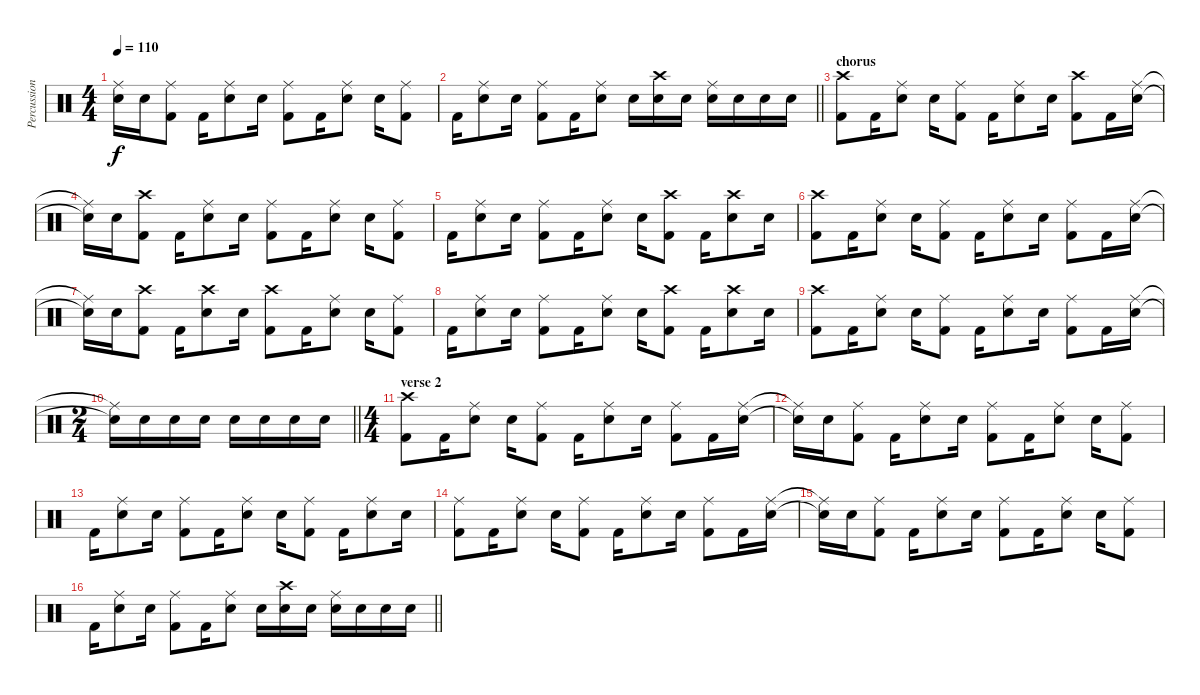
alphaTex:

\track ("Percussion" "Percussion") {instrument percussion}
\staff {score}
\articulation defaults
\ts (4 4)
\tempo 110
\clef neutral
\ks c
("Electric Snare (hit)"{t} "Ride (middle)"{t}).16{dy f} "Electric Snare (hit)".16 ("Kick (hit) 2" "Ride (middle)").8 "Kick (hit) 2".16 ("Electric Snare (hit)" "Ride (middle)").8 "Electric Snare (hit)".16 ("Kick (hit) 2" "Ride (middle)").8 "Kick (hit) 2".16 ("Electric Snare (hit)" "Ride (middle)").8 "Electric Snare (hit)".16 ("Kick (hit) 2" "Ride (middle)").8 |
\barLineRight lightlight "Kick (hit) 2".16
("Electric Snare (hit)" "Ride (middle)").8 "Electric Snare (hit)".16 ("Kick (hit) 2" "Ride (middle)").8 "Kick (hit) 2".16 ("Electric Snare (hit)" "Ride (middle)").8 "Electric Snare (hit)".16 ("Electric Snare (hit)" "Crash high (hit)").16 "Electric Snare (hit)".16 ("Electric Snare (hit)" "Ride (middle)").16 "Electric Snare (hit)".16 "Electric Snare (hit)".16 "Electric Snare (hit)".16 |
\section ("" "chorus")
("Kick (hit) 2" "Crash high (hit)").8 "Kick (hit) 2".16 ("Electric Snare (hit)" "Ride (middle)").8 "Electric Snare (hit)".16 ("Kick (hit) 2" "Ride (middle)").8 "Kick (hit) 2".16 ("Electric Snare (hit)" "Ride (middle)").8 "Electric Snare (hit)".16 ("Kick (hit) 2" "Crash high (hit)").8 "Kick (hit) 2".16 ("Electric Snare (hit)" "Ride (middle)").16 |
("Electric Snare (hit)"{t} "Ride (middle)"{t}).16 "Electric Snare (hit)".16 ("Kick (hit) 2" "Crash high (hit)").8 "Kick (hit) 2".16 ("Electric Snare (hit)" "Ride (middle)").8 "Electric Snare (hit)".16 ("Kick (hit) 2" "Ride (middle)").8 "Kick (hit) 2".16 ("Electric Snare (hit)" "Ride (middle)").8 "Electric Snare (hit)".16 ("Kick (hit) 2" "Ride (middle)").8 |
"Kick (hit) 2".16 ("Electric Snare (hit)" "Ride (middle)").8 "Electric Snare (hit)".16 ("Kick (hit) 2" "Ride (middle)").8 "Kick (hit) 2".16 ("Electric Snare (hit)" "Ride (middle)").8 "Electric Snare (hit)".16 ("Kick (hit) 2" "Crash high (hit)").8 "Kick (hit) 2".16 ("Electric Snare (hit)" "Crash high (hit)").8 "Electric Snare (hit)".16 |
("Kick (hit) 2" "Crash high (hit)").8 "Kick (hit) 2".16 ("Electric Snare (hit)" "Ride (middle)").8 "Electric Snare (hit)".16 ("Kick (hit) 2" "Ride (middle)").8 "Kick (hit) 2".16 ("Electric Snare (hit)" "Ride (middle)").8 "Electric Snare (hit)".16 ("Kick (hit) 2" "Ride (middle)").8 "Kick (hit) 2".16 ("Electric Snare (hit)" "Ride (middle)").16 |
("Electric Snare (hit)"{t} "Ride (middle)"{t}).16 "Electric Snare (hit)".16 ("Kick (hit) 2" "Crash high (hit)").8 "Kick (hit) 2".16 ("Electric Snare (hit)" "Crash high (hit)").8 "Electric Snare (hit)".16 ("Kick (hit) 2" "Crash high (hit)").8 "Kick (hit) 2".16 ("Electric Snare (hit)" "Ride (middle)").8 "Electric Snare (hit)".16 ("Kick (hit) 2" "Ride (middle)").8 |
"Kick (hit) 2".16 ("Electric Snare (hit)" "Ride (middle)").8 "Electric Snare (hit)".16 ("Kick (hit) 2" "Ride (middle)").8 "Kick (hit) 2".16 ("Electric Snare (hit)" "Ride (middle)").8 "Electric Snare (hit)".16 ("Kick (hit) 2" "Crash high (hit)").8 "Kick (hit) 2".16 ("Electric Snare (hit)" "Crash high (hit)").8 "Electric Snare (hit)".16 |
("Kick (hit) 2" "Crash high (hit)").8 "Kick (hit) 2".16 ("Electric Snare (hit)" "Ride (middle)").8 "Electric Snare (hit)".16 ("Kick (hit) 2" "Ride (middle)").8 "Kick (hit) 2".16 ("Electric Snare (hit)" "Ride (middle)").8 "Electric Snare (hit)".16 ("Kick (hit) 2" "Ride (middle)").8 "Kick (hit) 2".16 ("Electric Snare (hit)" "Ride (middle)").16 |
\ts (2 4)
\barLineRight lightlight
("Electric Snare (hit)"{t} "Ride (middle)"{t}).16 "Electric Snare (hit)".16 "Electric Snare (hit)".16 "Electric Snare (hit)".16 "Electric Snare (hit)".16 "Electric Snare (hit)".16 "Electric Snare (hit)".16 "Electric Snare (hit)".16 |
\ts (4 4)
\section ("" "verse 2")
("Kick (hit) 2" "Crash high (hit)").8 "Kick (hit) 2".16 ("Electric Snare (hit)" "Ride (middle)").8 "Electric Snare (hit)".16 ("Kick (hit) 2" "Ride (middle)").8 "Kick (hit) 2".16 ("Electric Snare (hit)" "Ride (middle)").8 "Electric Snare (hit)".16 ("Kick (hit) 2" "Ride (middle)").8 "Kick (hit) 2".16 ("Electric Snare (hit)" "Ride (middle)").16 |
("Electric Snare (hit)"{t} "Ride (middle)"{t}).16 "Electric Snare (hit)".16 ("Kick (hit) 2" "Ride (middle)").8 "Kick (hit) 2".16 ("Electric Snare (hit)" "Ride (middle)").8 "Electric Snare (hit)".16 ("Kick (hit) 2" "Ride (middle)").8 "Kick (hit) 2".16 ("Electric Snare (hit)" "Ride (middle)").8 "Electric Snare (hit)".16 ("Kick (hit) 2" "Ride (middle)").8 |
"Kick (hit) 2".16 ("Electric Snare (hit)" "Ride (middle)").8 "Electric Snare (hit)".16 ("Kick (hit) 2" "Ride (middle)").8 "Kick (hit) 2".16 ("Electric Snare (hit)" "Ride (middle)").8 "Electric Snare (hit)".16 ("Kick (hit) 2" "Ride (middle)").8 "Kick (hit) 2".16 ("Electric Snare (hit)" "Ride (middle)").8 "Electric Snare (hit)".16 |
("Kick (hit) 2" "Ride (middle)").8 "Kick (hit) 2".16 ("Electric Snare (hit)" "Ride (middle)").8 "Electric Snare (hit)".16 ("Kick (hit) 2" "Ride (middle)").8 "Kick (hit) 2".16 ("Electric Snare (hit)" "Ride (middle)").8 "Electric Snare (hit)".16 ("Kick (hit) 2" "Ride (middle)").8 "Kick (hit) 2".16 ("Electric Snare (hit)" "Ride (middle)").16 |
("Electric Snare (hit)"{t} "Ride (middle)"{t}).16 "Electric Snare (hit)".16 ("Kick (hit) 2" "Ride (middle)").8 "Kick (hit) 2".16 ("Electric Snare (hit)" "Ride (middle)").8 "Electric Snare (hit)".16 ("Kick (hit) 2" "Ride (middle)").8 "Kick (hit) 2".16 ("Electric Snare (hit)" "Ride (middle)").8 "Electric Snare (hit)".16 ("Kick (hit) 2" "Ride (middle)").8 |
\barLineRight lightlight "Kick (hit) 2".16
("Electric Snare (hit)" "Ride (middle)").8 "Electric Snare (hit)".16 ("Kick (hit) 2" "Ride (middle)").8 "Kick (hit) 2".16 ("Electric Snare (hit)" "Ride (middle)").8 "Electric Snare (hit)".16 ("Electric Snare (hit)" "Crash high (hit)").16 "Electric Snare (hit)".16 ("Electric Snare (hit)" "Ride (middle)").16 "Electric Snare (hit)".16 "Electric Snare (hit)".16 "Electric Snare (hit)".16
